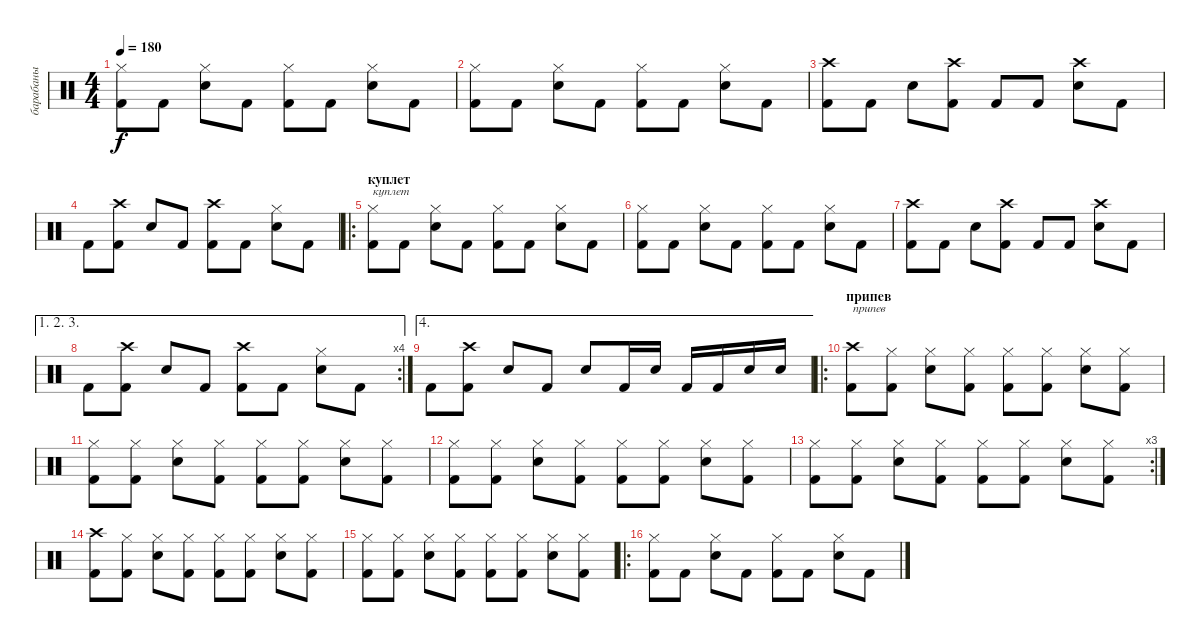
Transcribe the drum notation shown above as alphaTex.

\track ("барабаны" "барабаны") {instrument percussion}
\staff {score}
\articulation defaults
\ts (4 4)
\tempo 180
\clef neutral
\ks c
("Kick (hit) 2" "Hi-Hat (closed)").8{dy f} "Kick (hit) 2".8 ("Snare (hit) 2" "Hi-Hat (closed)").8 "Kick (hit) 2".8 ("Kick (hit) 2" "Hi-Hat (closed)").8 "Kick (hit) 2".8 ("Snare (hit) 2" "Hi-Hat (closed)").8 "Kick (hit) 2".8 |
("Kick (hit) 2" "Hi-Hat (closed)").8 "Kick (hit) 2".8 ("Snare (hit) 2" "Hi-Hat (closed)").8 "Kick (hit) 2".8 ("Kick (hit) 2" "Hi-Hat (closed)").8 "Kick (hit) 2".8 ("Snare (hit) 2" "Hi-Hat (closed)").8 "Kick (hit) 2".8 |
("Kick (hit) 2" "Crash high (hit)").8 "Kick (hit) 2".8 "Snare (hit) 2".8 ("Kick (hit) 2" "Crash high (hit)").8 "Kick (hit) 2".8 "Kick (hit) 2".8 ("Snare (hit) 2" "Crash high (hit)").8 "Kick (hit) 2".8 |
"Kick (hit) 2".8 ("Kick (hit) 2" "Crash high (hit)").8 "Snare (hit) 2".8 "Kick (hit) 2".8 ("Kick (hit) 2" "Crash high (hit)").8 "Kick (hit) 2".8 ("Snare (hit) 2" "Hi-Hat (closed)").8 "Kick (hit) 2".8 |
\ro
\section ("" "куплет")
("Kick (hit) 2" "Hi-Hat (closed)").8{txt "куплет"} "Kick (hit) 2".8 ("Snare (hit) 2" "Hi-Hat (closed)").8 "Kick (hit) 2".8 ("Kick (hit) 2" "Hi-Hat (closed)").8 "Kick (hit) 2".8 ("Snare (hit) 2" "Hi-Hat (closed)").8 "Kick (hit) 2".8 |
("Kick (hit) 2" "Hi-Hat (closed)").8 "Kick (hit) 2".8 ("Snare (hit) 2" "Hi-Hat (closed)").8 "Kick (hit) 2".8 ("Kick (hit) 2" "Hi-Hat (closed)").8 "Kick (hit) 2".8 ("Snare (hit) 2" "Hi-Hat (closed)").8 "Kick (hit) 2".8 |
("Kick (hit) 2" "Crash high (hit)").8 "Kick (hit) 2".8 "Snare (hit) 2".8 ("Kick (hit) 2" "Crash high (hit)").8 "Kick (hit) 2".8 "Kick (hit) 2".8 ("Snare (hit) 2" "Crash high (hit)").8 "Kick (hit) 2".8 |
\ae (1 2 3)
\rc 4 "Kick (hit) 2".8
("Kick (hit) 2" "Crash high (hit)").8 "Snare (hit) 2".8 "Kick (hit) 2".8 ("Kick (hit) 2" "Crash high (hit)").8 "Kick (hit) 2".8 ("Snare (hit) 2" "Hi-Hat (closed)").8 "Kick (hit) 2".8 |
\ae 4 "Kick (hit) 2".8
("Kick (hit) 2" "Crash high (hit)").8 "Snare (hit) 2".8 "Kick (hit) 2".8 "Snare (hit) 2".8 "Kick (hit) 2".16 "Snare (hit) 2".16 "Kick (hit) 2".16 "Kick (hit) 2".16 "Snare (hit) 2".16 "Snare (hit) 2".16 |
\ro
\section ("" "припев")
("Kick (hit) 2" "Crash high (hit)").8{txt "припев"} ("Kick (hit) 2" "Hi-Hat (closed)").8 ("Snare (hit) 2" "Hi-Hat (closed)").8 ("Kick (hit) 2" "Hi-Hat (closed)").8 ("Kick (hit) 2" "Hi-Hat (closed)").8 ("Kick (hit) 2" "Hi-Hat (closed)").8 ("Snare (hit) 2" "Hi-Hat (closed)").8 ("Kick (hit) 2" "Hi-Hat (closed)").8 |
("Kick (hit) 2" "Hi-Hat (closed)").8 ("Kick (hit) 2" "Hi-Hat (closed)").8 ("Snare (hit) 2" "Hi-Hat (closed)").8 ("Kick (hit) 2" "Hi-Hat (closed)").8 ("Kick (hit) 2" "Hi-Hat (closed)").8 ("Kick (hit) 2" "Hi-Hat (closed)").8 ("Snare (hit) 2" "Hi-Hat (closed)").8 ("Kick (hit) 2" "Hi-Hat (closed)").8 |
("Kick (hit) 2" "Hi-Hat (closed)").8 ("Kick (hit) 2" "Hi-Hat (closed)").8 ("Snare (hit) 2" "Hi-Hat (closed)").8 ("Kick (hit) 2" "Hi-Hat (closed)").8 ("Kick (hit) 2" "Hi-Hat (closed)").8 ("Kick (hit) 2" "Hi-Hat (closed)").8 ("Snare (hit) 2" "Hi-Hat (closed)").8 ("Kick (hit) 2" "Hi-Hat (closed)").8 |
\rc 3
("Kick (hit) 2" "Hi-Hat (closed)").8 ("Kick (hit) 2" "Hi-Hat (closed)").8 ("Snare (hit) 2" "Hi-Hat (closed)").8 ("Kick (hit) 2" "Hi-Hat (closed)").8 ("Kick (hit) 2" "Hi-Hat (closed)").8 ("Kick (hit) 2" "Hi-Hat (closed)").8 ("Snare (hit) 2" "Hi-Hat (closed)").8 ("Kick (hit) 2" "Hi-Hat (closed)").8 |
("Kick (hit) 2" "Crash high (hit)").8 ("Kick (hit) 2" "Hi-Hat (closed)").8 ("Snare (hit) 2" "Hi-Hat (closed)").8 ("Kick (hit) 2" "Hi-Hat (closed)").8 ("Kick (hit) 2" "Hi-Hat (closed)").8 ("Kick (hit) 2" "Hi-Hat (closed)").8 ("Snare (hit) 2" "Hi-Hat (closed)").8 ("Kick (hit) 2" "Hi-Hat (closed)").8 |
("Kick (hit) 2" "Hi-Hat (closed)").8 ("Kick (hit) 2" "Hi-Hat (closed)").8 ("Snare (hit) 2" "Hi-Hat (closed)").8 ("Kick (hit) 2" "Hi-Hat (closed)").8 ("Kick (hit) 2" "Hi-Hat (closed)").8 ("Kick (hit) 2" "Hi-Hat (closed)").8 ("Snare (hit) 2" "Hi-Hat (closed)").8 ("Kick (hit) 2" "Hi-Hat (closed)").8 |
\ro
("Kick (hit) 2" "Hi-Hat (closed)").8 "Kick (hit) 2".8 ("Snare (hit) 2" "Hi-Hat (closed)").8 "Kick (hit) 2".8 ("Kick (hit) 2" "Hi-Hat (closed)").8 "Kick (hit) 2".8 ("Snare (hit) 2" "Hi-Hat (closed)").8 "Kick (hit) 2".8
